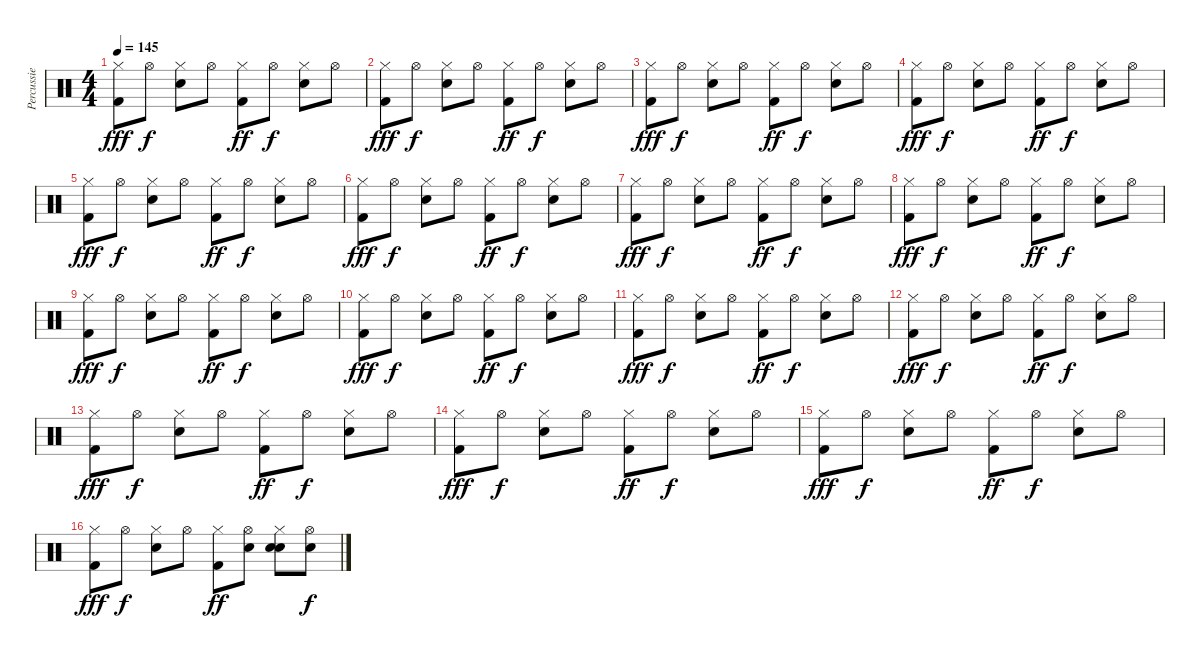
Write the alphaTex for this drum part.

\track ("Percussie" "Percussie") {instrument percussion}
\staff {score}
\articulation defaults
\ts (4 4)
\tempo 145
\clef neutral
\ks c
("Kick (hit) 2" "Hi-Hat (closed)").8{dy fff} "Hi-Hat (open)".8{dy f} ("Electric Snare (hit)" "Hi-Hat (closed)").8 "Hi-Hat (open)".8 ("Kick (hit) 2" "Hi-Hat (closed)").8{dy ff} "Hi-Hat (open)".8{dy f} ("Electric Snare (hit)" "Hi-Hat (closed)").8 "Hi-Hat (open)".8 |
("Kick (hit) 2" "Hi-Hat (closed)").8{dy fff} "Hi-Hat (open)".8{dy f} ("Electric Snare (hit)" "Hi-Hat (closed)").8 "Hi-Hat (open)".8 ("Kick (hit) 2" "Hi-Hat (closed)").8{dy ff} "Hi-Hat (open)".8{dy f} ("Electric Snare (hit)" "Hi-Hat (closed)").8 "Hi-Hat (open)".8 |
("Kick (hit) 2" "Hi-Hat (closed)").8{dy fff} "Hi-Hat (open)".8{dy f} ("Electric Snare (hit)" "Hi-Hat (closed)").8 "Hi-Hat (open)".8 ("Kick (hit) 2" "Hi-Hat (closed)").8{dy ff} "Hi-Hat (open)".8{dy f} ("Electric Snare (hit)" "Hi-Hat (closed)").8 "Hi-Hat (open)".8 |
("Kick (hit) 2" "Hi-Hat (closed)").8{dy fff} "Hi-Hat (open)".8{dy f} ("Electric Snare (hit)" "Hi-Hat (closed)").8 "Hi-Hat (open)".8 ("Kick (hit) 2" "Hi-Hat (closed)").8{dy ff} "Hi-Hat (open)".8{dy f} ("Electric Snare (hit)" "Hi-Hat (closed)").8 "Hi-Hat (open)".8 |
("Kick (hit) 2" "Hi-Hat (closed)").8{dy fff} "Hi-Hat (open)".8{dy f} ("Electric Snare (hit)" "Hi-Hat (closed)").8 "Hi-Hat (open)".8 ("Kick (hit) 2" "Hi-Hat (closed)").8{dy ff} "Hi-Hat (open)".8{dy f} ("Electric Snare (hit)" "Hi-Hat (closed)").8 "Hi-Hat (open)".8 |
("Kick (hit) 2" "Hi-Hat (closed)").8{dy fff} "Hi-Hat (open)".8{dy f} ("Electric Snare (hit)" "Hi-Hat (closed)").8 "Hi-Hat (open)".8 ("Kick (hit) 2" "Hi-Hat (closed)").8{dy ff} "Hi-Hat (open)".8{dy f} ("Electric Snare (hit)" "Hi-Hat (closed)").8 "Hi-Hat (open)".8 |
("Kick (hit) 2" "Hi-Hat (closed)").8{dy fff} "Hi-Hat (open)".8{dy f} ("Electric Snare (hit)" "Hi-Hat (closed)").8 "Hi-Hat (open)".8 ("Kick (hit) 2" "Hi-Hat (closed)").8{dy ff} "Hi-Hat (open)".8{dy f} ("Electric Snare (hit)" "Hi-Hat (closed)").8 "Hi-Hat (open)".8 |
("Kick (hit) 2" "Hi-Hat (closed)").8{dy fff} "Hi-Hat (open)".8{dy f} ("Electric Snare (hit)" "Hi-Hat (closed)").8 "Hi-Hat (open)".8 ("Kick (hit) 2" "Hi-Hat (closed)").8{dy ff} "Hi-Hat (open)".8{dy f} ("Electric Snare (hit)" "Hi-Hat (closed)").8 "Hi-Hat (open)".8 |
("Kick (hit) 2" "Hi-Hat (closed)").8{dy fff} "Hi-Hat (open)".8{dy f} ("Electric Snare (hit)" "Hi-Hat (closed)").8 "Hi-Hat (open)".8 ("Kick (hit) 2" "Hi-Hat (closed)").8{dy ff} "Hi-Hat (open)".8{dy f} ("Electric Snare (hit)" "Hi-Hat (closed)").8 "Hi-Hat (open)".8 |
("Kick (hit) 2" "Hi-Hat (closed)").8{dy fff} "Hi-Hat (open)".8{dy f} ("Electric Snare (hit)" "Hi-Hat (closed)").8 "Hi-Hat (open)".8 ("Kick (hit) 2" "Hi-Hat (closed)").8{dy ff} "Hi-Hat (open)".8{dy f} ("Electric Snare (hit)" "Hi-Hat (closed)").8 "Hi-Hat (open)".8 |
("Kick (hit) 2" "Hi-Hat (closed)").8{dy fff} "Hi-Hat (open)".8{dy f} ("Electric Snare (hit)" "Hi-Hat (closed)").8 "Hi-Hat (open)".8 ("Kick (hit) 2" "Hi-Hat (closed)").8{dy ff} "Hi-Hat (open)".8{dy f} ("Electric Snare (hit)" "Hi-Hat (closed)").8 "Hi-Hat (open)".8 |
("Kick (hit) 2" "Hi-Hat (closed)").8{dy fff} "Hi-Hat (open)".8{dy f} ("Electric Snare (hit)" "Hi-Hat (closed)").8 "Hi-Hat (open)".8 ("Kick (hit) 2" "Hi-Hat (closed)").8{dy ff} "Hi-Hat (open)".8{dy f} ("Electric Snare (hit)" "Hi-Hat (closed)").8 "Hi-Hat (open)".8 |
("Kick (hit) 2" "Hi-Hat (closed)").8{dy fff} "Hi-Hat (open)".8{dy f} ("Electric Snare (hit)" "Hi-Hat (closed)").8 "Hi-Hat (open)".8 ("Kick (hit) 2" "Hi-Hat (closed)").8{dy ff} "Hi-Hat (open)".8{dy f} ("Electric Snare (hit)" "Hi-Hat (closed)").8 "Hi-Hat (open)".8 |
("Kick (hit) 2" "Hi-Hat (closed)").8{dy fff} "Hi-Hat (open)".8{dy f} ("Electric Snare (hit)" "Hi-Hat (closed)").8 "Hi-Hat (open)".8 ("Kick (hit) 2" "Hi-Hat (closed)").8{dy ff} "Hi-Hat (open)".8{dy f} ("Electric Snare (hit)" "Hi-Hat (closed)").8 "Hi-Hat (open)".8 |
("Kick (hit) 2" "Hi-Hat (closed)").8{dy fff} "Hi-Hat (open)".8{dy f} ("Electric Snare (hit)" "Hi-Hat (closed)").8 "Hi-Hat (open)".8 ("Kick (hit) 2" "Hi-Hat (closed)").8{dy ff} "Hi-Hat (open)".8{dy f} ("Electric Snare (hit)" "Hi-Hat (closed)").8 "Hi-Hat (open)".8 |
("Kick (hit) 2" "Hi-Hat (closed)").8{dy fff} "Hi-Hat (open)".8{dy f} ("Electric Snare (hit)" "Hi-Hat (closed)").8 "Hi-Hat (open)".8 ("Kick (hit) 2" "Hi-Hat (closed)").8{dy ff} ("Hi-Hat (open)" "Electric Snare (hit)").8 ("Electric Snare (hit)" "Hi-Hat (closed)" "Electric Snare (hit)").8 ("Hi-Hat (open)" "Electric Snare (hit)").8{dy f}
